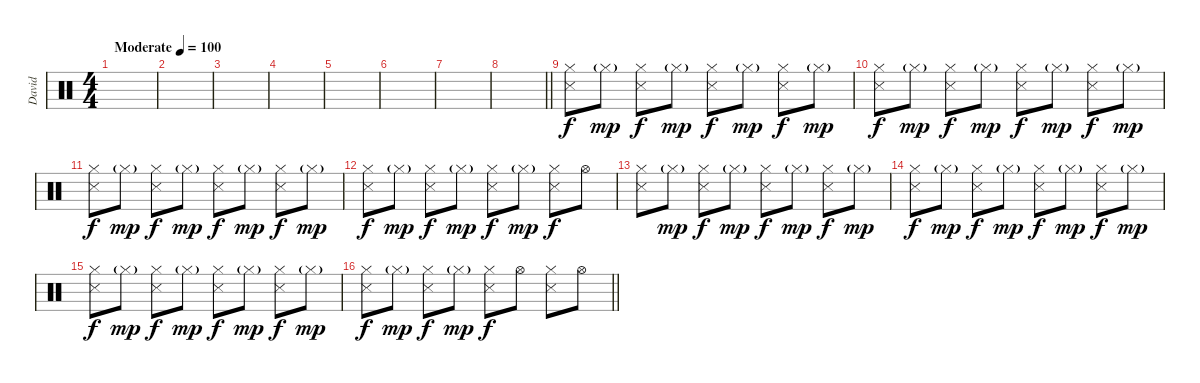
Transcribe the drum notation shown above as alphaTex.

\track ("David" "David") {instrument percussion}
\staff {score}
\articulation defaults
\ts (4 4)
\tempo (100 "Moderate")
\clef neutral
\ks c
|
|
|
|
|
|
|
\barLineRight lightlight
|
\section ("" "")
("Hi-Hat (closed)" "Snare (side stick) 3").8 "Hi-Hat (closed)"{g}.8{dy mp} ("Hi-Hat (closed)" "Snare (side stick) 3").8{dy f} "Hi-Hat (closed)"{g}.8{dy mp} ("Hi-Hat (closed)" "Snare (side stick) 3").8{dy f} "Hi-Hat (closed)"{g}.8{dy mp} ("Hi-Hat (closed)" "Snare (side stick) 3").8{dy f} "Hi-Hat (closed)"{g}.8{dy mp} |
("Hi-Hat (closed)" "Snare (side stick) 3").8{dy f} "Hi-Hat (closed)"{g}.8{dy mp} ("Hi-Hat (closed)" "Snare (side stick) 3").8{dy f} "Hi-Hat (closed)"{g}.8{dy mp} ("Hi-Hat (closed)" "Snare (side stick) 3").8{dy f} "Hi-Hat (closed)"{g}.8{dy mp} ("Hi-Hat (closed)" "Snare (side stick) 3").8{dy f} "Hi-Hat (closed)"{g}.8{dy mp} |
("Hi-Hat (closed)" "Snare (side stick) 3").8{dy f} "Hi-Hat (closed)"{g}.8{dy mp} ("Hi-Hat (closed)" "Snare (side stick) 3").8{dy f} "Hi-Hat (closed)"{g}.8{dy mp} ("Hi-Hat (closed)" "Snare (side stick) 3").8{dy f} "Hi-Hat (closed)"{g}.8{dy mp} ("Hi-Hat (closed)" "Snare (side stick) 3").8{dy f} "Hi-Hat (closed)"{g}.8{dy mp} |
("Hi-Hat (closed)" "Snare (side stick) 3").8{dy f} "Hi-Hat (closed)"{g}.8{dy mp} ("Hi-Hat (closed)" "Snare (side stick) 3").8{dy f} "Hi-Hat (closed)"{g}.8{dy mp} ("Hi-Hat (closed)" "Snare (side stick) 3").8{dy f} "Hi-Hat (closed)"{g}.8{dy mp} ("Hi-Hat (closed)" "Snare (side stick) 3").8{dy f} "Hi-Hat (open)".8 |
("Hi-Hat (closed)" "Snare (side stick) 3").8 "Hi-Hat (closed)"{g}.8{dy mp} ("Hi-Hat (closed)" "Snare (side stick) 3").8{dy f} "Hi-Hat (closed)"{g}.8{dy mp} ("Hi-Hat (closed)" "Snare (side stick) 3").8{dy f} "Hi-Hat (closed)"{g}.8{dy mp} ("Hi-Hat (closed)" "Snare (side stick) 3").8{dy f} "Hi-Hat (closed)"{g}.8{dy mp} |
("Hi-Hat (closed)" "Snare (side stick) 3").8{dy f} "Hi-Hat (closed)"{g}.8{dy mp} ("Hi-Hat (closed)" "Snare (side stick) 3").8{dy f} "Hi-Hat (closed)"{g}.8{dy mp} ("Hi-Hat (closed)" "Snare (side stick) 3").8{dy f} "Hi-Hat (closed)"{g}.8{dy mp} ("Hi-Hat (closed)" "Snare (side stick) 3").8{dy f} "Hi-Hat (closed)"{g}.8{dy mp} |
("Hi-Hat (closed)" "Snare (side stick) 3").8{dy f} "Hi-Hat (closed)"{g}.8{dy mp} ("Hi-Hat (closed)" "Snare (side stick) 3").8{dy f} "Hi-Hat (closed)"{g}.8{dy mp} ("Hi-Hat (closed)" "Snare (side stick) 3").8{dy f} "Hi-Hat (closed)"{g}.8{dy mp} ("Hi-Hat (closed)" "Snare (side stick) 3").8{dy f} "Hi-Hat (closed)"{g}.8{dy mp} |
\barLineRight lightlight
("Hi-Hat (closed)" "Snare (side stick) 3").8{dy f} "Hi-Hat (closed)"{g}.8{dy mp} ("Hi-Hat (closed)" "Snare (side stick) 3").8{dy f} "Hi-Hat (closed)"{g}.8{dy mp} ("Hi-Hat (closed)" "Snare (side stick) 3").8{dy f} "Hi-Hat (open)".8 ("Hi-Hat (closed)" "Snare (side stick) 3").8 "Hi-Hat (open)".8
